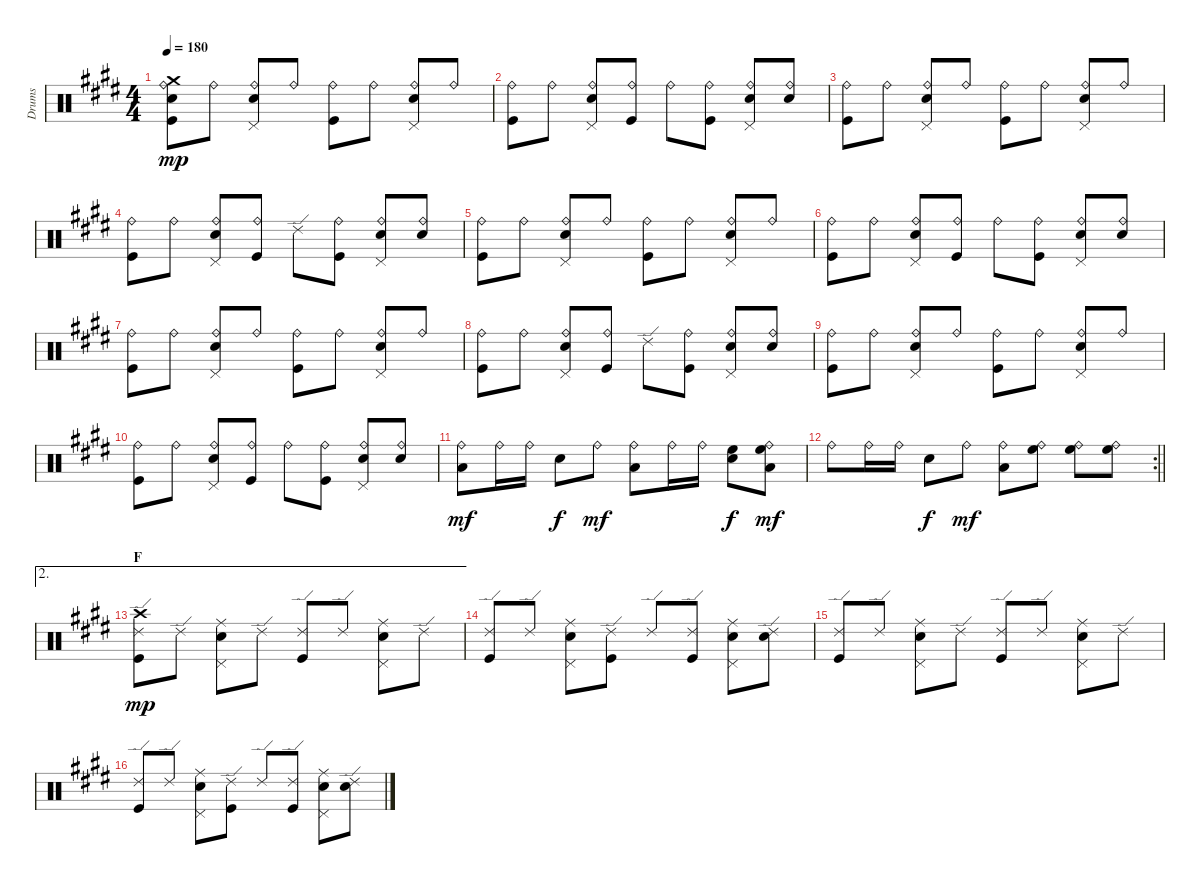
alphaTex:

\track ("Drums" "Drums") {instrument percussion}
\staff {score}
\articulation defaults
\ts (4 4)
\tempo 180
\clef neutral
\ks e
("Ride (bell)" "Crash medium (hit)" "Snare (hit) 2" "Kick (hit)").8{dy mp} "Ride (bell)".8 ("Ride (bell)" "Snare (hit) 2" "Pedal Hi-Hat (hit)").8 "Ride (bell)".8 ("Ride (bell)" "Kick (hit)").8 "Ride (bell)".8 ("Ride (bell)" "Snare (hit) 2" "Pedal Hi-Hat (hit)").8 "Ride (bell)".8 |
("Ride (bell)" "Kick (hit)").8 "Ride (bell)".8 ("Ride (bell)" "Snare (hit) 2" "Pedal Hi-Hat (hit)").8 ("Ride (bell)" "Kick (hit)").8 "Ride (bell)".8 ("Ride (bell)" "Kick (hit)").8 ("Ride (bell)" "Snare (hit) 2" "Pedal Hi-Hat (hit)").8 ("Ride (bell)" "Snare (hit) 2").8 |
("Ride (bell)" "Kick (hit)").8 "Ride (bell)".8 ("Ride (bell)" "Snare (hit) 2" "Pedal Hi-Hat (hit)").8 "Ride (bell)".8 ("Ride (bell)" "Kick (hit)").8 "Ride (bell)".8 ("Ride (bell)" "Snare (hit) 2" "Pedal Hi-Hat (hit)").8 "Ride (bell)".8 |
("Ride (bell)" "Kick (hit)").8 "Ride (bell)".8 ("Ride (bell)" "Snare (hit) 2" "Pedal Hi-Hat (hit)").8 ("Ride (bell)" "Kick (hit)").8 "Ride (edge) 2".8 ("Ride (bell)" "Kick (hit)").8 ("Ride (bell)" "Snare (hit) 2" "Pedal Hi-Hat (hit)").8 ("Ride (bell)" "Snare (hit) 2").8 |
("Ride (bell)" "Kick (hit)").8 "Ride (bell)".8 ("Ride (bell)" "Snare (hit) 2" "Pedal Hi-Hat (hit)").8 "Ride (bell)".8 ("Ride (bell)" "Kick (hit)").8 "Ride (bell)".8 ("Ride (bell)" "Snare (hit) 2" "Pedal Hi-Hat (hit)").8 "Ride (bell)".8 |
("Ride (bell)" "Kick (hit)").8 "Ride (bell)".8 ("Ride (bell)" "Snare (hit) 2" "Pedal Hi-Hat (hit)").8 ("Ride (bell)" "Kick (hit)").8 "Ride (bell)".8 ("Ride (bell)" "Kick (hit)").8 ("Ride (bell)" "Snare (hit) 2" "Pedal Hi-Hat (hit)").8 ("Ride (bell)" "Snare (hit) 2").8 |
("Ride (bell)" "Kick (hit)").8 "Ride (bell)".8 ("Ride (bell)" "Snare (hit) 2" "Pedal Hi-Hat (hit)").8 "Ride (bell)".8 ("Ride (bell)" "Kick (hit)").8 "Ride (bell)".8 ("Ride (bell)" "Snare (hit) 2" "Pedal Hi-Hat (hit)").8 "Ride (bell)".8 |
("Ride (bell)" "Kick (hit)").8 "Ride (bell)".8 ("Ride (bell)" "Snare (hit) 2" "Pedal Hi-Hat (hit)").8 ("Ride (bell)" "Kick (hit)").8 "Ride (edge) 2".8 ("Ride (bell)" "Kick (hit)").8 ("Ride (bell)" "Snare (hit) 2" "Pedal Hi-Hat (hit)").8 ("Ride (bell)" "Snare (hit) 2").8 |
("Ride (bell)" "Kick (hit)").8 "Ride (bell)".8 ("Ride (bell)" "Snare (hit) 2" "Pedal Hi-Hat (hit)").8 "Ride (bell)".8 ("Ride (bell)" "Kick (hit)").8 "Ride (bell)".8 ("Ride (bell)" "Snare (hit) 2" "Pedal Hi-Hat (hit)").8 "Ride (bell)".8 |
("Ride (bell)" "Kick (hit)").8 "Ride (bell)".8 ("Ride (bell)" "Snare (hit) 2" "Pedal Hi-Hat (hit)").8 ("Ride (bell)" "Kick (hit)").8 "Ride (bell)".8 ("Ride (bell)" "Kick (hit)").8 ("Ride (bell)" "Snare (hit) 2" "Pedal Hi-Hat (hit)").8 ("Ride (bell)" "Snare (hit) 2").8 |
("Ride (bell)" "Low Tom (hit)").8{dy mf} "Ride (bell)".16 "Ride (bell)".16 "Snare (hit) 2".8{dy f} "Ride (bell)".8{dy mf} ("Ride (bell)" "Low Tom (hit)").8 "Ride (bell)".16 "Ride (bell)".16 ("High Floor Tom (hit)" "Snare (hit) 2").8{dy f} ("Ride (bell)" "High Floor Tom (hit)" "Low Tom (hit)").8{dy mf} |
\rc 2
\barLineRight lightlight "Ride (bell)".8 "Ride (bell)".16 "Ride (bell)".16 "Snare (hit) 2".8{dy f} "Ride (bell)".8{dy mf}
("Ride (bell)" "Low Tom (hit)").8 ("Ride (bell)" "High Floor Tom (hit)").8 ("Ride (bell)" "High Floor Tom (hit)").8 ("Ride (bell)" "High Floor Tom (hit)").8 |
\ae 2
\section ("" "F")
("Ride (edge) 2" "Crash high (hit)" "Kick (hit)").8{dy mp} "Ride (edge) 2".8 ("Ride (middle)" "Snare (hit) 2" "Pedal Hi-Hat (hit)").8 "Ride (edge) 2".8 ("Ride (edge) 2" "Kick (hit)").8 "Ride (edge) 2".8 ("Ride (middle)" "Snare (hit) 2" "Pedal Hi-Hat (hit)").8 "Ride (edge) 2".8 |
("Ride (edge) 2" "Kick (hit)").8 "Ride (edge) 2".8 ("Ride (middle)" "Snare (hit) 2" "Pedal Hi-Hat (hit)").8 ("Ride (edge) 2" "Kick (hit)").8 "Ride (edge) 2".8 ("Ride (edge) 2" "Kick (hit)").8 ("Ride (middle)" "Snare (hit) 2" "Pedal Hi-Hat (hit)").8 ("Ride (edge) 2" "Snare (hit) 2").8 |
("Ride (edge) 2" "Kick (hit)").8 "Ride (edge) 2".8 ("Ride (middle)" "Snare (hit) 2" "Pedal Hi-Hat (hit)").8 "Ride (edge) 2".8 ("Ride (edge) 2" "Kick (hit)").8 "Ride (edge) 2".8 ("Ride (middle)" "Snare (hit) 2" "Pedal Hi-Hat (hit)").8 "Ride (edge) 2".8 |
("Ride (edge) 2" "Kick (hit)").8 "Ride (edge) 2".8 ("Ride (middle)" "Snare (hit) 2" "Pedal Hi-Hat (hit)").8 ("Ride (edge) 2" "Kick (hit)").8 "Ride (edge) 2".8 ("Ride (edge) 2" "Kick (hit)").8 ("Ride (middle)" "Snare (hit) 2" "Pedal Hi-Hat (hit)").8 ("Ride (edge) 2" "Snare (hit) 2").8
